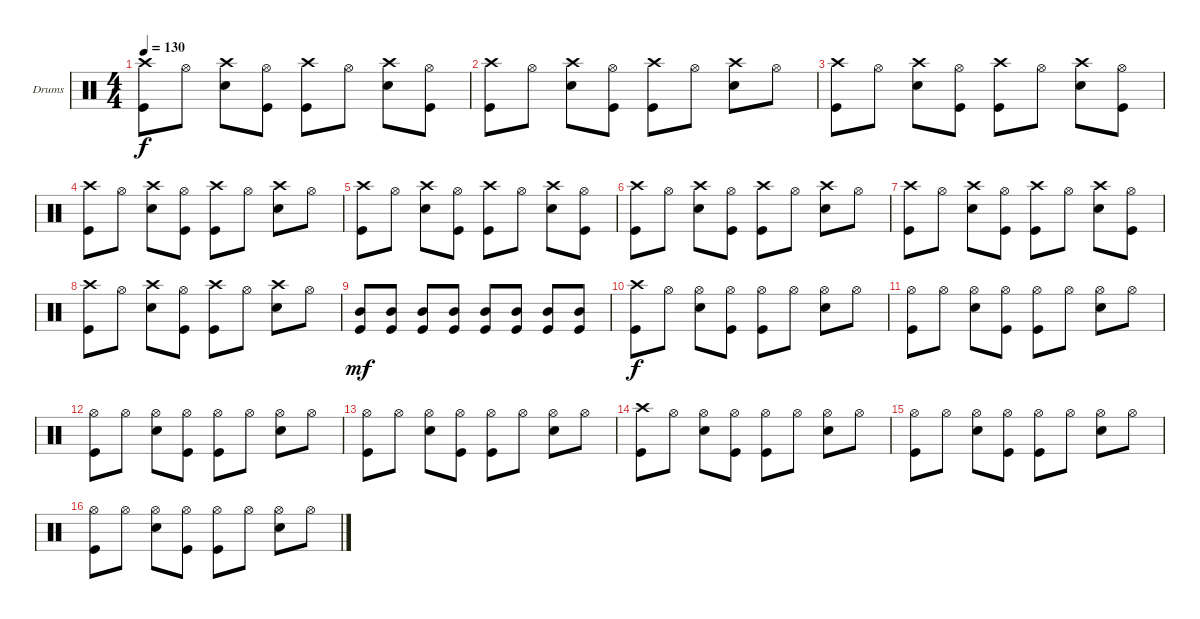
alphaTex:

\defaultSystemsLayout 4
\bracketExtendMode groupsimilarinstruments
\firstSystemTrackNameOrientation horizontal
\otherSystemsTrackNameOrientation horizontal
\track ("Drumkit" "Drums") {instrument percussion}
\staff {score}
\articulation defaults
\ts (4 4)
\tempo 130
\clef neutral
\ks c
("Kick (hit)" "Crash high (hit)").8{dy f} "Hi-Hat (open)".8 ("Snare (hit) 2" "Crash high (hit)").8 ("Kick (hit)" "Hi-Hat (open)").8 ("Kick (hit)" "Crash high (hit)").8 "Hi-Hat (open)".8 ("Snare (hit) 2" "Crash high (hit)").8 ("Kick (hit)" "Hi-Hat (open)").8 |
("Kick (hit)" "Crash high (hit)").8 "Hi-Hat (open)".8 ("Snare (hit) 2" "Crash high (hit)").8 ("Kick (hit)" "Hi-Hat (open)").8 ("Kick (hit)" "Crash high (hit)").8 "Hi-Hat (open)".8 ("Snare (hit) 2" "Crash high (hit)").8 "Hi-Hat (open)".8 |
("Kick (hit)" "Crash high (hit)").8 "Hi-Hat (open)".8 ("Snare (hit) 2" "Crash high (hit)").8 ("Kick (hit)" "Hi-Hat (open)").8 ("Kick (hit)" "Crash high (hit)").8 "Hi-Hat (open)".8 ("Snare (hit) 2" "Crash high (hit)").8 ("Kick (hit)" "Hi-Hat (open)").8 |
("Kick (hit)" "Crash high (hit)").8 "Hi-Hat (open)".8 ("Snare (hit) 2" "Crash high (hit)").8 ("Kick (hit)" "Hi-Hat (open)").8 ("Kick (hit)" "Crash high (hit)").8 "Hi-Hat (open)".8 ("Snare (hit) 2" "Crash high (hit)").8 "Hi-Hat (open)".8 |
("Kick (hit)" "Crash high (hit)").8 "Hi-Hat (open)".8 ("Snare (hit) 2" "Crash high (hit)").8 ("Kick (hit)" "Hi-Hat (open)").8 ("Kick (hit)" "Crash high (hit)").8 "Hi-Hat (open)".8 ("Snare (hit) 2" "Crash high (hit)").8 ("Kick (hit)" "Hi-Hat (open)").8 |
("Kick (hit)" "Crash high (hit)").8 "Hi-Hat (open)".8 ("Snare (hit) 2" "Crash high (hit)").8 ("Kick (hit)" "Hi-Hat (open)").8 ("Kick (hit)" "Crash high (hit)").8 "Hi-Hat (open)".8 ("Snare (hit) 2" "Crash high (hit)").8 "Hi-Hat (open)".8 |
("Kick (hit)" "Crash high (hit)").8 "Hi-Hat (open)".8 ("Snare (hit) 2" "Crash high (hit)").8 ("Kick (hit)" "Hi-Hat (open)").8 ("Kick (hit)" "Crash high (hit)").8 "Hi-Hat (open)".8 ("Snare (hit) 2" "Crash high (hit)").8 ("Kick (hit)" "Hi-Hat (open)").8 |
("Kick (hit)" "Crash high (hit)").8 "Hi-Hat (open)".8 ("Snare (hit) 2" "Crash high (hit)").8 ("Kick (hit)" "Hi-Hat (open)").8 ("Kick (hit)" "Crash high (hit)").8 "Hi-Hat (open)".8 ("Snare (hit) 2" "Crash high (hit)").8 "Hi-Hat (open)".8 |
("Kick (hit)" "Mid Tom (hit)").8{dy mf} ("Kick (hit)" "Mid Tom (hit)").8 ("Kick (hit)" "Mid Tom (hit)").8 ("Kick (hit)" "Mid Tom (hit)").8 ("Kick (hit)" "Mid Tom (hit)").8 ("Kick (hit)" "Mid Tom (hit)").8 ("Kick (hit)" "Mid Tom (hit)").8 ("Kick (hit)" "Mid Tom (hit)").8 |
("Kick (hit)" "Crash high (hit)").8{dy f} "Hi-Hat (open)".8 ("Snare (hit) 2" "Hi-Hat (open)").8 ("Kick (hit)" "Hi-Hat (open)").8 ("Kick (hit)" "Hi-Hat (open)").8 "Hi-Hat (open)".8 ("Snare (hit) 2" "Hi-Hat (open)").8 "Hi-Hat (open)".8 |
("Kick (hit)" "Hi-Hat (open)").8 "Hi-Hat (open)".8 ("Snare (hit) 2" "Hi-Hat (open)").8 ("Kick (hit)" "Hi-Hat (open)").8 ("Kick (hit)" "Hi-Hat (open)").8 "Hi-Hat (open)".8 ("Snare (hit) 2" "Hi-Hat (open)").8 "Hi-Hat (open)".8 |
("Kick (hit)" "Hi-Hat (open)").8 "Hi-Hat (open)".8 ("Snare (hit) 2" "Hi-Hat (open)").8 ("Kick (hit)" "Hi-Hat (open)").8 ("Kick (hit)" "Hi-Hat (open)").8 "Hi-Hat (open)".8 ("Snare (hit) 2" "Hi-Hat (open)").8 "Hi-Hat (open)".8 |
("Kick (hit)" "Hi-Hat (open)").8 "Hi-Hat (open)".8 ("Snare (hit) 2" "Hi-Hat (open)").8 ("Kick (hit)" "Hi-Hat (open)").8 ("Kick (hit)" "Hi-Hat (open)").8 "Hi-Hat (open)".8 ("Snare (hit) 2" "Hi-Hat (open)").8 "Hi-Hat (open)".8 |
("Kick (hit)" "Crash high (hit)").8 "Hi-Hat (open)".8 ("Snare (hit) 2" "Hi-Hat (open)").8 ("Kick (hit)" "Hi-Hat (open)").8 ("Kick (hit)" "Hi-Hat (open)").8 "Hi-Hat (open)".8 ("Snare (hit) 2" "Hi-Hat (open)").8 "Hi-Hat (open)".8 |
("Kick (hit)" "Hi-Hat (open)").8 "Hi-Hat (open)".8 ("Snare (hit) 2" "Hi-Hat (open)").8 ("Kick (hit)" "Hi-Hat (open)").8 ("Kick (hit)" "Hi-Hat (open)").8 "Hi-Hat (open)".8 ("Snare (hit) 2" "Hi-Hat (open)").8 "Hi-Hat (open)".8 |
("Kick (hit)" "Hi-Hat (open)").8 "Hi-Hat (open)".8 ("Snare (hit) 2" "Hi-Hat (open)").8 ("Kick (hit)" "Hi-Hat (open)").8 ("Kick (hit)" "Hi-Hat (open)").8 "Hi-Hat (open)".8 ("Snare (hit) 2" "Hi-Hat (open)").8 "Hi-Hat (open)".8
